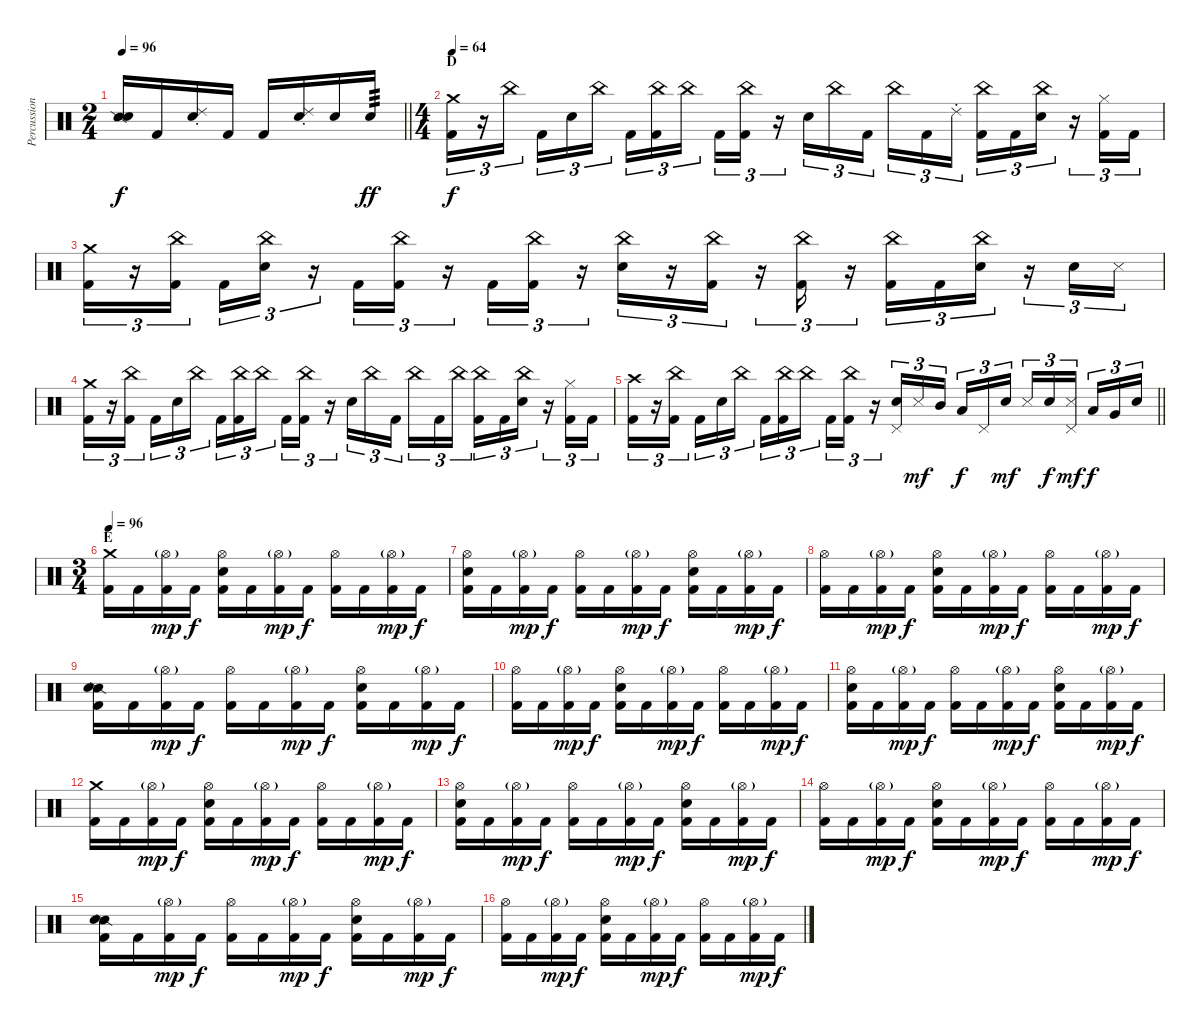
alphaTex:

\track ("Percussion" "Percussion") {instrument percussion}
\staff {score}
\articulation defaults
\ts (2 4)
\tempo 96
\clef neutral
\barLineRight lightlight
\ks c
("Snare (side stick) 2" "Snare (hit) 2").16{dy f} "Kick (hit) 2".16 ("Ride (choke) 2" "Snare (hit) 2").16 "Kick (hit) 2".16 "Kick (hit) 2".16 ("Ride (choke) 2" "Snare (hit) 2").16 "Snare (hit) 2".16 "Snare (hit) 2".16{tp 3 dy ff} |
\ts (4 4)
\section ("" "D")
\tempo 64
("Crash medium (hit)" "Kick (hit) 2").16{tu (3 2) dy f} r.16{tu (3 2)} "China (hit)".16{tu (3 2) beam splitsecondary} "Kick (hit) 2".16{tu (3 2)} "Snare (hit) 2".16{tu (3 2)} "China (hit)".16{tu (3 2)} "Kick (hit) 2".16{tu (3 2)} ("China (hit)" "Kick (hit) 2").16{tu (3 2)} "China (hit)".16{tu (3 2) beam splitsecondary} "Kick (hit) 2".16{tu (3 2)} ("China (hit)" "Kick (hit) 2").16{tu (3 2)} r.16{tu (3 2)} "Snare (hit) 2".16{tu (3 2)} "China (hit)".16{tu (3 2)} "Kick (hit) 2".16{tu (3 2) beam splitsecondary} "China (hit)".16{tu (3 2)} "Kick (hit) 2".16{tu (3 2)} "Ride (choke) 2".16{tu (3 2)} ("China (hit)" "Kick (hit) 2").16{tu (3 2)} "Kick (hit) 2".16{tu (3 2)} ("China (hit)" "Snare (hit) 2").16{tu (3 2)} r.16{tu (3 2)} ("Hi-Hat (closed)" "Kick (hit) 2").16{tu (3 2)} "Kick (hit) 2".16{tu (3 2)} |
("Crash medium (hit)" "Kick (hit) 2").16{tu (3 2)} r.16{tu (3 2)} ("China (hit)" "Kick (hit) 2").16{tu (3 2) beam splitsecondary} "Kick (hit) 2".16{tu (3 2)} ("China (hit)" "Snare (hit) 2").16{tu (3 2)} r.16{tu (3 2)} "Kick (hit) 2".16{tu (3 2)} ("China (hit)" "Kick (hit) 2").16{tu (3 2)} r.16{tu (3 2)} "Kick (hit) 2".16{tu (3 2)} ("China (hit)" "Kick (hit) 2").16{tu (3 2)} r.16{tu (3 2)} ("China (hit)" "Snare (hit) 2").16{tu (3 2)} r.16{tu (3 2)} ("China (hit)" "Kick (hit) 2").16{tu (3 2)} r.16{tu (3 2)} ("China (hit)" "Kick (hit) 2").16{tu (3 2)} r.16{tu (3 2)} ("China (hit)" "Kick (hit) 2").16{tu (3 2)} "Kick (hit) 2".16{tu (3 2)} ("China (hit)" "Snare (hit) 2").16{tu (3 2)} r.16{tu (3 2)} "Snare (hit) 2".16{tu (3 2)} "Metronome (hit)".16{tu (3 2)} |
("Crash medium (hit)" "Kick (hit) 2").16{tu (3 2)} r.16{tu (3 2)} ("China (hit)" "Kick (hit) 2").16{tu (3 2) beam splitsecondary} "Kick (hit) 2".16{tu (3 2)} "Snare (hit) 2".16{tu (3 2)} "China (hit)".16{tu (3 2)} "Kick (hit) 2".16{tu (3 2)} ("China (hit)" "Kick (hit) 2").16{tu (3 2)} "China (hit)".16{tu (3 2) beam splitsecondary} "Kick (hit) 2".16{tu (3 2)} ("China (hit)" "Kick (hit) 2").16{tu (3 2)} r.16{tu (3 2)} "Snare (hit) 2".16{tu (3 2)} "China (hit)".16{tu (3 2)} "Kick (hit) 2".16{tu (3 2) beam splitsecondary} "China (hit)".16{tu (3 2)} "Kick (hit) 2".16{tu (3 2)} "China (hit)".16{tu (3 2)} ("China (hit)" "Kick (hit) 2").16{tu (3 2)} "Kick (hit) 2".16{tu (3 2)} ("China (hit)" "Snare (hit) 2").16{tu (3 2)} r.16{tu (3 2)} ("Hi-Hat (closed)" "Kick (hit) 2").16{tu (3 2)} "Kick (hit) 2".16{tu (3 2)} |
\barLineRight lightlight
("Crash high (hit)" "Kick (hit) 2").16{tu (3 2)} r.16{tu (3 2)} ("China (hit)" "Kick (hit) 2").16{tu (3 2) beam splitsecondary} "Kick (hit) 2".16{tu (3 2)} "Snare (hit) 2".16{tu (3 2)} "China (hit)".16{tu (3 2)} "Kick (hit) 2".16{tu (3 2)} ("China (hit)" "Kick (hit) 2").16{tu (3 2)} "China (hit)".16{tu (3 2) beam splitsecondary} "Kick (hit) 2".16{tu (3 2)} ("China (hit)" "Kick (hit) 2").16{tu (3 2)} r.16{tu (3 2)} ("Pedal Hi-Hat (hit)" "Snare (hit) 2").16{tu (3 2)} "Metronome (hit)".16{tu (3 2) dy mf} "Mid Tom (hit)".16{tu (3 2) beam splitsecondary} "Low Tom (hit)".16{tu (3 2) dy f} "Pedal Hi-Hat (hit)".16{tu (3 2)} "Snare (hit) 2".16{tu (3 2) dy mf} "Metronome (hit)".16{tu (3 2)} "Snare (hit) 2".16{tu (3 2) dy f} ("Pedal Hi-Hat (hit)" "Metronome (hit)").16{tu (3 2) dy mf beam splitsecondary} "Low Tom (hit)".16{tu (3 2) dy f} "Very Low Tom (hit)".16{tu (3 2)} "Snare (hit) 2".16{tu (3 2)} |
\ts (3 4)
\section ("" "E")
\tempo 96
("Crash medium (hit)" "Kick (hit) 2").16 "Kick (hit) 2".16 ("Hi-Hat (open)"{g} "Kick (hit) 2").16{dy mp} "Kick (hit) 2".16{dy f} ("Hi-Hat (open)" "Snare (hit) 2" "Kick (hit) 2").16 "Kick (hit) 2".16 ("Hi-Hat (open)"{g} "Kick (hit) 2").16{dy mp} "Kick (hit) 2".16{dy f} ("Hi-Hat (open)" "Kick (hit) 2").16 "Kick (hit) 2".16 ("Hi-Hat (open)"{g} "Kick (hit) 2").16{dy mp} "Kick (hit) 2".16{dy f} |
("Hi-Hat (open)" "Snare (hit) 2" "Kick (hit) 2").16 "Kick (hit) 2".16 ("Hi-Hat (open)"{g} "Kick (hit) 2").16{dy mp} "Kick (hit) 2".16{dy f} ("Hi-Hat (open)" "Kick (hit) 2").16 "Kick (hit) 2".16 ("Hi-Hat (open)"{g} "Kick (hit) 2").16{dy mp} "Kick (hit) 2".16{dy f} ("Hi-Hat (open)" "Snare (hit) 2" "Kick (hit) 2").16 "Kick (hit) 2".16 ("Hi-Hat (open)"{g} "Kick (hit) 2").16{dy mp} "Kick (hit) 2".16{dy f} |
("Hi-Hat (open)" "Kick (hit) 2").16 "Kick (hit) 2".16 ("Hi-Hat (open)"{g} "Kick (hit) 2").16{dy mp} "Kick (hit) 2".16{dy f} ("Hi-Hat (open)" "Snare (hit) 2" "Kick (hit) 2").16 "Kick (hit) 2".16 ("Hi-Hat (open)"{g} "Kick (hit) 2").16{dy mp} "Kick (hit) 2".16{dy f} ("Hi-Hat (open)" "Kick (hit) 2").16 "Kick (hit) 2".16 ("Hi-Hat (open)"{g} "Kick (hit) 2").16{dy mp} "Kick (hit) 2".16{dy f} |
("Snare (side stick) 2" "Snare (hit) 2" "Kick (hit) 2").16 "Kick (hit) 2".16 ("Hi-Hat (open)"{g} "Kick (hit) 2").16{dy mp} "Kick (hit) 2".16{dy f} ("Hi-Hat (open)" "Kick (hit) 2").16 "Kick (hit) 2".16 ("Hi-Hat (open)"{g} "Kick (hit) 2").16{dy mp} "Kick (hit) 2".16{dy f} ("Hi-Hat (open)" "Snare (hit) 2" "Kick (hit) 2").16 "Kick (hit) 2".16 ("Hi-Hat (open)"{g} "Kick (hit) 2").16{dy mp} "Kick (hit) 2".16{dy f} |
("Hi-Hat (open)" "Kick (hit) 2").16 "Kick (hit) 2".16 ("Hi-Hat (open)"{g} "Kick (hit) 2").16{dy mp} "Kick (hit) 2".16{dy f} ("Hi-Hat (open)" "Snare (hit) 2" "Kick (hit) 2").16 "Kick (hit) 2".16 ("Hi-Hat (open)"{g} "Kick (hit) 2").16{dy mp} "Kick (hit) 2".16{dy f} ("Hi-Hat (open)" "Kick (hit) 2").16 "Kick (hit) 2".16 ("Hi-Hat (open)"{g} "Kick (hit) 2").16{dy mp} "Kick (hit) 2".16{dy f} |
("Hi-Hat (open)" "Snare (hit) 2" "Kick (hit) 2").16 "Kick (hit) 2".16 ("Hi-Hat (open)"{g} "Kick (hit) 2").16{dy mp} "Kick (hit) 2".16{dy f} ("Hi-Hat (open)" "Kick (hit) 2").16 "Kick (hit) 2".16 ("Hi-Hat (open)"{g} "Kick (hit) 2").16{dy mp} "Kick (hit) 2".16{dy f} ("Hi-Hat (open)" "Snare (hit) 2" "Kick (hit) 2").16 "Kick (hit) 2".16 ("Hi-Hat (open)"{g} "Kick (hit) 2").16{dy mp} "Kick (hit) 2".16{dy f} |
("Crash medium (hit)" "Kick (hit) 2").16 "Kick (hit) 2".16 ("Hi-Hat (open)"{g} "Kick (hit) 2").16{dy mp} "Kick (hit) 2".16{dy f} ("Hi-Hat (open)" "Snare (hit) 2" "Kick (hit) 2").16 "Kick (hit) 2".16 ("Hi-Hat (open)"{g} "Kick (hit) 2").16{dy mp} "Kick (hit) 2".16{dy f} ("Hi-Hat (open)" "Kick (hit) 2").16 "Kick (hit) 2".16 ("Hi-Hat (open)"{g} "Kick (hit) 2").16{dy mp} "Kick (hit) 2".16{dy f} |
("Hi-Hat (open)" "Snare (hit) 2" "Kick (hit) 2").16 "Kick (hit) 2".16 ("Hi-Hat (open)"{g} "Kick (hit) 2").16{dy mp} "Kick (hit) 2".16{dy f} ("Hi-Hat (open)" "Kick (hit) 2").16 "Kick (hit) 2".16 ("Hi-Hat (open)"{g} "Kick (hit) 2").16{dy mp} "Kick (hit) 2".16{dy f} ("Hi-Hat (open)" "Snare (hit) 2" "Kick (hit) 2").16 "Kick (hit) 2".16 ("Hi-Hat (open)"{g} "Kick (hit) 2").16{dy mp} "Kick (hit) 2".16{dy f} |
("Hi-Hat (open)" "Kick (hit) 2").16 "Kick (hit) 2".16 ("Hi-Hat (open)"{g} "Kick (hit) 2").16{dy mp} "Kick (hit) 2".16{dy f} ("Hi-Hat (open)" "Snare (hit) 2" "Kick (hit) 2").16 "Kick (hit) 2".16 ("Hi-Hat (open)"{g} "Kick (hit) 2").16{dy mp} "Kick (hit) 2".16{dy f} ("Hi-Hat (open)" "Kick (hit) 2").16 "Kick (hit) 2".16 ("Hi-Hat (open)"{g} "Kick (hit) 2").16{dy mp} "Kick (hit) 2".16{dy f} |
("Snare (side stick) 2" "Snare (hit) 2" "Kick (hit) 2").16 "Kick (hit) 2".16 ("Hi-Hat (open)"{g} "Kick (hit) 2").16{dy mp} "Kick (hit) 2".16{dy f} ("Hi-Hat (open)" "Kick (hit) 2").16 "Kick (hit) 2".16 ("Hi-Hat (open)"{g} "Kick (hit) 2").16{dy mp} "Kick (hit) 2".16{dy f} ("Hi-Hat (open)" "Snare (hit) 2" "Kick (hit) 2").16 "Kick (hit) 2".16 ("Hi-Hat (open)"{g} "Kick (hit) 2").16{dy mp} "Kick (hit) 2".16{dy f} |
("Hi-Hat (open)" "Kick (hit) 2").16 "Kick (hit) 2".16 ("Hi-Hat (open)"{g} "Kick (hit) 2").16{dy mp} "Kick (hit) 2".16{dy f} ("Hi-Hat (open)" "Snare (hit) 2" "Kick (hit) 2").16 "Kick (hit) 2".16 ("Hi-Hat (open)"{g} "Kick (hit) 2").16{dy mp} "Kick (hit) 2".16{dy f} ("Hi-Hat (open)" "Kick (hit) 2").16 "Kick (hit) 2".16 ("Hi-Hat (open)"{g} "Kick (hit) 2").16{dy mp} "Kick (hit) 2".16{dy f}
